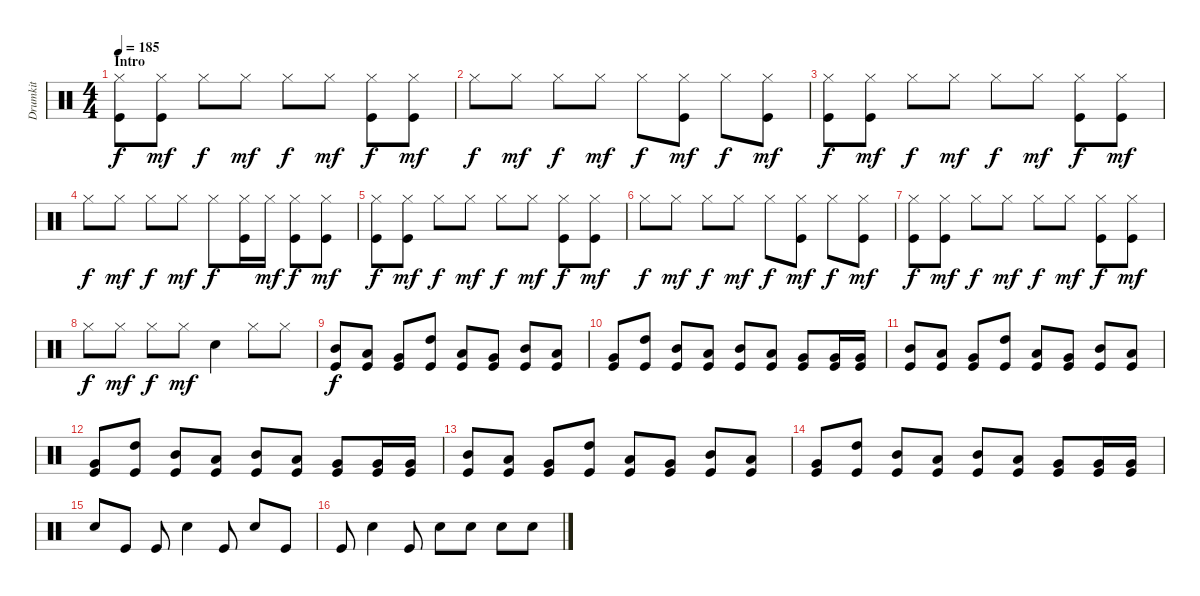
\track ("Drumkit" "Drumkit") {instrument percussion}
\staff {score}
\articulation defaults
\ts (4 4)
\section ("" "Intro")
\tempo 185
\clef neutral
\ks c
("Kick (hit)" "Hi-Hat (closed)").8{dy f} ("Kick (hit)" "Hi-Hat (closed)").8{dy mf} "Hi-Hat (closed)".8{dy f} "Hi-Hat (closed)".8{dy mf} "Hi-Hat (closed)".8{dy f} "Hi-Hat (closed)".8{dy mf} ("Hi-Hat (closed)" "Kick (hit)").8{dy f} ("Hi-Hat (closed)" "Kick (hit)").8{dy mf} |
"Hi-Hat (closed)".8{dy f} "Hi-Hat (closed)".8{dy mf} "Hi-Hat (closed)".8{dy f} "Hi-Hat (closed)".8{dy mf} "Hi-Hat (closed)".8{dy f} ("Hi-Hat (closed)" "Kick (hit)").8{dy mf} "Hi-Hat (closed)".8{dy f} ("Hi-Hat (closed)" "Kick (hit)").8{dy mf} |
("Hi-Hat (closed)" "Kick (hit)").8{dy f} ("Hi-Hat (closed)" "Kick (hit)").8{dy mf} "Hi-Hat (closed)".8{dy f} "Hi-Hat (closed)".8{dy mf} "Hi-Hat (closed)".8{dy f} "Hi-Hat (closed)".8{dy mf} ("Hi-Hat (closed)" "Kick (hit)").8{dy f} ("Hi-Hat (closed)" "Kick (hit)").8{dy mf} |
"Hi-Hat (closed)".8{dy f} "Hi-Hat (closed)".8{dy mf} "Hi-Hat (closed)".8{dy f} "Hi-Hat (closed)".8{dy mf} "Hi-Hat (closed)".8{dy f} ("Hi-Hat (closed)" "Kick (hit)").16 "Hi-Hat (closed)".16{dy mf} ("Hi-Hat (closed)" "Kick (hit)").8{dy f} ("Hi-Hat (closed)" "Kick (hit)").8{dy mf} |
("Kick (hit)" "Hi-Hat (closed)").8{dy f} ("Kick (hit)" "Hi-Hat (closed)").8{dy mf} "Hi-Hat (closed)".8{dy f} "Hi-Hat (closed)".8{dy mf} "Hi-Hat (closed)".8{dy f} "Hi-Hat (closed)".8{dy mf} ("Hi-Hat (closed)" "Kick (hit)").8{dy f} ("Hi-Hat (closed)" "Kick (hit)").8{dy mf} |
"Hi-Hat (closed)".8{dy f} "Hi-Hat (closed)".8{dy mf} "Hi-Hat (closed)".8{dy f} "Hi-Hat (closed)".8{dy mf} "Hi-Hat (closed)".8{dy f} ("Hi-Hat (closed)" "Kick (hit)").8{dy mf} "Hi-Hat (closed)".8{dy f} ("Hi-Hat (closed)" "Kick (hit)").8{dy mf} |
("Hi-Hat (closed)" "Kick (hit)").8{dy f} ("Hi-Hat (closed)" "Kick (hit)").8{dy mf} "Hi-Hat (closed)".8{dy f} "Hi-Hat (closed)".8{dy mf} "Hi-Hat (closed)".8{dy f} "Hi-Hat (closed)".8{dy mf} ("Hi-Hat (closed)" "Kick (hit)").8{dy f} ("Hi-Hat (closed)" "Kick (hit)").8{dy mf} |
"Hi-Hat (closed)".8{dy f} "Hi-Hat (closed)".8{dy mf} "Hi-Hat (closed)".8{dy f} "Hi-Hat (closed)".8{dy mf} "Snare (hit) 2".4 "Hi-Hat (closed)".8 "Hi-Hat (closed)".8 |
("Mid Tom (hit)" "Kick (hit)").8{dy f} ("Low Tom (hit)" "Kick (hit)").8 ("Very Low Tom (hit)" "Kick (hit)").8 ("High Tom (hit)" "Kick (hit)").8 ("Low Tom (hit)" "Kick (hit)").8 ("Very Low Tom (hit)" "Kick (hit)").8 ("Mid Tom (hit)" "Kick (hit)").8 ("Low Tom (hit)" "Kick (hit)").8 |
("Very Low Tom (hit)" "Kick (hit)").8 ("High Tom (hit)" "Kick (hit)").8 ("Mid Tom (hit)" "Kick (hit)").8 ("Low Tom (hit)" "Kick (hit)").8 ("Mid Tom (hit)" "Kick (hit)").8 ("Low Tom (hit)" "Kick (hit)").8 ("Very Low Tom (hit)" "Kick (hit)").8 ("Very Low Tom (hit)" "Kick (hit)").16 ("Very Low Tom (hit)" "Kick (hit)").16 |
("Mid Tom (hit)" "Kick (hit)").8 ("Low Tom (hit)" "Kick (hit)").8 ("Very Low Tom (hit)" "Kick (hit)").8 ("High Tom (hit)" "Kick (hit)").8 ("Low Tom (hit)" "Kick (hit)").8 ("Very Low Tom (hit)" "Kick (hit)").8 ("Mid Tom (hit)" "Kick (hit)").8 ("Low Tom (hit)" "Kick (hit)").8 |
("Very Low Tom (hit)" "Kick (hit)").8 ("High Tom (hit)" "Kick (hit)").8 ("Mid Tom (hit)" "Kick (hit)").8 ("Low Tom (hit)" "Kick (hit)").8 ("Mid Tom (hit)" "Kick (hit)").8 ("Low Tom (hit)" "Kick (hit)").8 ("Very Low Tom (hit)" "Kick (hit)").8 ("Very Low Tom (hit)" "Kick (hit)").16 ("Very Low Tom (hit)" "Kick (hit)").16 |
("Mid Tom (hit)" "Kick (hit)").8 ("Low Tom (hit)" "Kick (hit)").8 ("Very Low Tom (hit)" "Kick (hit)").8 ("High Tom (hit)" "Kick (hit)").8 ("Low Tom (hit)" "Kick (hit)").8 ("Very Low Tom (hit)" "Kick (hit)").8 ("Mid Tom (hit)" "Kick (hit)").8 ("Low Tom (hit)" "Kick (hit)").8 |
("Very Low Tom (hit)" "Kick (hit)").8 ("High Tom (hit)" "Kick (hit)").8 ("Mid Tom (hit)" "Kick (hit)").8 ("Low Tom (hit)" "Kick (hit)").8 ("Mid Tom (hit)" "Kick (hit)").8 ("Low Tom (hit)" "Kick (hit)").8 ("Very Low Tom (hit)" "Kick (hit)").8 ("Very Low Tom (hit)" "Kick (hit)").16 ("Very Low Tom (hit)" "Kick (hit)").16 |
"Snare (hit) 2".8 "Kick (hit)".8 "Kick (hit)".8 "Snare (hit) 2".4 "Kick (hit)".8 "Snare (hit) 2".8 "Kick (hit)".8 |
"Kick (hit)".8 "Snare (hit) 2".4 "Kick (hit)".8 "Snare (hit) 2".8 "Snare (hit) 2".8 "Snare (hit) 2".8 "Snare (hit) 2".8
